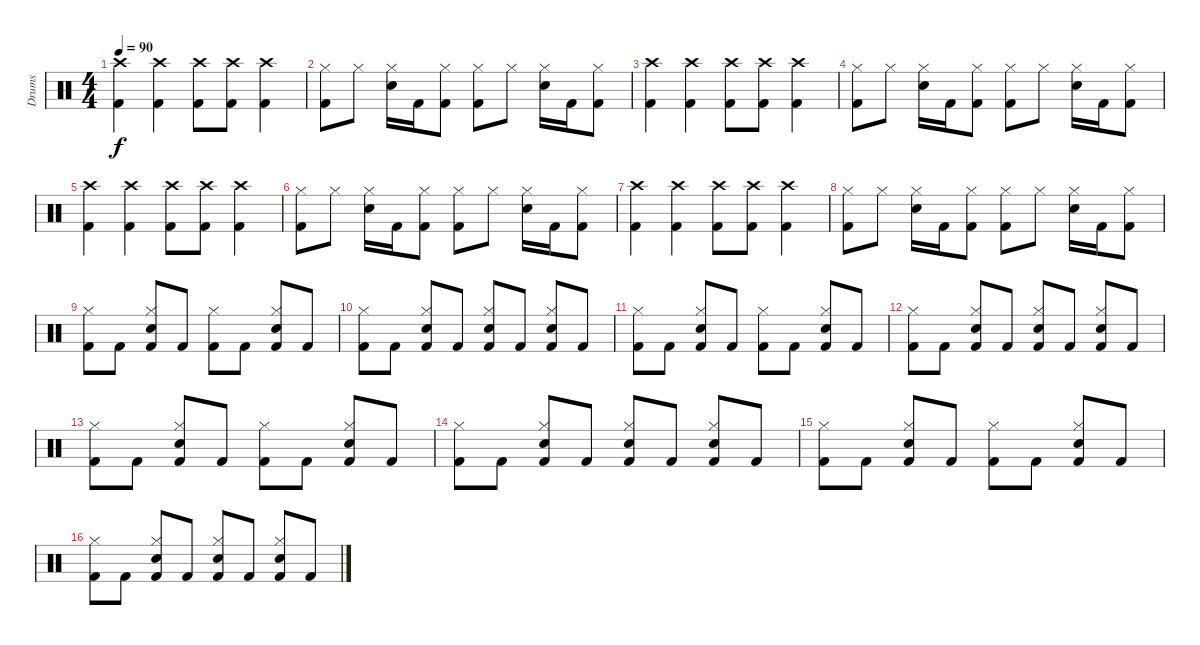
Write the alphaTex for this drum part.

\track ("Drums" "Drums") {instrument percussion}
\staff {score}
\articulation defaults
\ts (4 4)
\tempo 90
\clef neutral
\ks c
("Crash high (hit)" "Kick (hit) 2").4{dy f} ("Crash high (hit)" "Kick (hit) 2").4 ("Crash high (hit)" "Kick (hit) 2").8 ("Crash high (hit)" "Kick (hit) 2").8 ("Crash high (hit)" "Kick (hit) 2").4 |
("Hi-Hat (closed)" "Kick (hit) 2").8 "Hi-Hat (closed)".8 ("Hi-Hat (closed)" "Snare (hit) 2").16 "Kick (hit) 2".16 ("Hi-Hat (closed)" "Kick (hit) 2").8 ("Hi-Hat (closed)" "Kick (hit) 2").8 "Hi-Hat (closed)".8 ("Hi-Hat (closed)" "Snare (hit) 2").16 "Kick (hit) 2".16 ("Hi-Hat (closed)" "Kick (hit) 2").8 |
("Crash high (hit)" "Kick (hit) 2").4 ("Crash high (hit)" "Kick (hit) 2").4 ("Crash high (hit)" "Kick (hit) 2").8 ("Crash high (hit)" "Kick (hit) 2").8 ("Crash high (hit)" "Kick (hit) 2").4 |
("Hi-Hat (closed)" "Kick (hit) 2").8 "Hi-Hat (closed)".8 ("Hi-Hat (closed)" "Snare (hit) 2").16 "Kick (hit) 2".16 ("Hi-Hat (closed)" "Kick (hit) 2").8 ("Hi-Hat (closed)" "Kick (hit) 2").8 "Hi-Hat (closed)".8 ("Hi-Hat (closed)" "Snare (hit) 2").16 "Kick (hit) 2".16 ("Hi-Hat (closed)" "Kick (hit) 2").8 |
("Crash high (hit)" "Kick (hit) 2").4 ("Crash high (hit)" "Kick (hit) 2").4 ("Crash high (hit)" "Kick (hit) 2").8 ("Crash high (hit)" "Kick (hit) 2").8 ("Crash high (hit)" "Kick (hit) 2").4 |
("Hi-Hat (closed)" "Kick (hit) 2").8 "Hi-Hat (closed)".8 ("Hi-Hat (closed)" "Snare (hit) 2").16 "Kick (hit) 2".16 ("Hi-Hat (closed)" "Kick (hit) 2").8 ("Hi-Hat (closed)" "Kick (hit) 2").8 "Hi-Hat (closed)".8 ("Hi-Hat (closed)" "Snare (hit) 2").16 "Kick (hit) 2".16 ("Hi-Hat (closed)" "Kick (hit) 2").8 |
("Crash high (hit)" "Kick (hit) 2").4 ("Crash high (hit)" "Kick (hit) 2").4 ("Crash high (hit)" "Kick (hit) 2").8 ("Crash high (hit)" "Kick (hit) 2").8 ("Crash high (hit)" "Kick (hit) 2").4 |
("Hi-Hat (closed)" "Kick (hit) 2").8 "Hi-Hat (closed)".8 ("Hi-Hat (closed)" "Snare (hit) 2").16 "Kick (hit) 2".16 ("Hi-Hat (closed)" "Kick (hit) 2").8 ("Hi-Hat (closed)" "Kick (hit) 2").8 "Hi-Hat (closed)".8 ("Hi-Hat (closed)" "Snare (hit) 2").16 "Kick (hit) 2".16 ("Hi-Hat (closed)" "Kick (hit) 2").8 |
("Hi-Hat (closed)" "Kick (hit) 2").8 "Kick (hit) 2".8 ("Hi-Hat (closed)" "Kick (hit) 2" "Snare (hit) 2").8 "Kick (hit) 2".8 ("Hi-Hat (closed)" "Kick (hit) 2").8 "Kick (hit) 2".8 ("Hi-Hat (closed)" "Kick (hit) 2" "Snare (hit) 2").8 "Kick (hit) 2".8 |
("Hi-Hat (closed)" "Kick (hit) 2").8 "Kick (hit) 2".8 ("Hi-Hat (closed)" "Kick (hit) 2" "Snare (hit) 2").8 "Kick (hit) 2".8 ("Hi-Hat (closed)" "Kick (hit) 2" "Snare (hit) 2").8 "Kick (hit) 2".8 ("Hi-Hat (closed)" "Kick (hit) 2" "Snare (hit) 2").8 "Kick (hit) 2".8 |
("Hi-Hat (closed)" "Kick (hit) 2").8 "Kick (hit) 2".8 ("Hi-Hat (closed)" "Kick (hit) 2" "Snare (hit) 2").8 "Kick (hit) 2".8 ("Hi-Hat (closed)" "Kick (hit) 2").8 "Kick (hit) 2".8 ("Hi-Hat (closed)" "Kick (hit) 2" "Snare (hit) 2").8 "Kick (hit) 2".8 |
("Hi-Hat (closed)" "Kick (hit) 2").8 "Kick (hit) 2".8 ("Hi-Hat (closed)" "Kick (hit) 2" "Snare (hit) 2").8 "Kick (hit) 2".8 ("Hi-Hat (closed)" "Kick (hit) 2" "Snare (hit) 2").8 "Kick (hit) 2".8 ("Hi-Hat (closed)" "Kick (hit) 2" "Snare (hit) 2").8 "Kick (hit) 2".8 |
("Hi-Hat (closed)" "Kick (hit) 2").8 "Kick (hit) 2".8 ("Hi-Hat (closed)" "Kick (hit) 2" "Snare (hit) 2").8 "Kick (hit) 2".8 ("Hi-Hat (closed)" "Kick (hit) 2").8 "Kick (hit) 2".8 ("Hi-Hat (closed)" "Kick (hit) 2" "Snare (hit) 2").8 "Kick (hit) 2".8 |
("Hi-Hat (closed)" "Kick (hit) 2").8 "Kick (hit) 2".8 ("Hi-Hat (closed)" "Kick (hit) 2" "Snare (hit) 2").8 "Kick (hit) 2".8 ("Hi-Hat (closed)" "Kick (hit) 2" "Snare (hit) 2").8 "Kick (hit) 2".8 ("Hi-Hat (closed)" "Kick (hit) 2" "Snare (hit) 2").8 "Kick (hit) 2".8 |
("Hi-Hat (closed)" "Kick (hit) 2").8 "Kick (hit) 2".8 ("Hi-Hat (closed)" "Kick (hit) 2" "Snare (hit) 2").8 "Kick (hit) 2".8 ("Hi-Hat (closed)" "Kick (hit) 2").8 "Kick (hit) 2".8 ("Hi-Hat (closed)" "Kick (hit) 2" "Snare (hit) 2").8 "Kick (hit) 2".8 |
("Hi-Hat (closed)" "Kick (hit) 2").8 "Kick (hit) 2".8 ("Hi-Hat (closed)" "Kick (hit) 2" "Snare (hit) 2").8 "Kick (hit) 2".8 ("Hi-Hat (closed)" "Kick (hit) 2" "Snare (hit) 2").8 "Kick (hit) 2".8 ("Hi-Hat (closed)" "Kick (hit) 2" "Snare (hit) 2").8 "Kick (hit) 2".8
